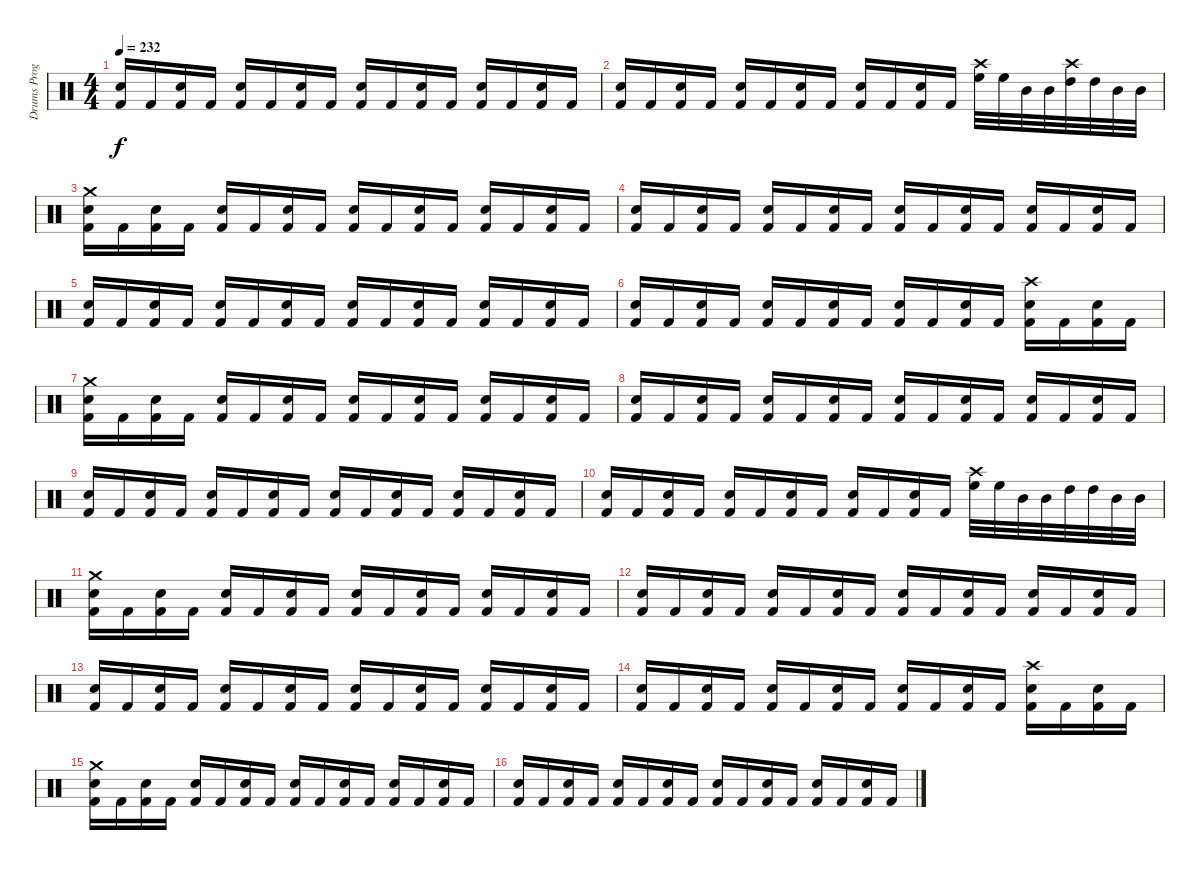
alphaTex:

\track ("Drums Programming" "Drums Prog") {instrument percussion}
\staff {score}
\articulation defaults
\ts (4 4)
\tempo 232
\clef neutral
\ks c
("Electric Snare (hit)" "Kick (hit) 2").16{dy f} "Kick (hit) 2".16 ("Electric Snare (hit)" "Kick (hit) 2").16 "Kick (hit) 2".16 ("Electric Snare (hit)" "Kick (hit) 2").16 "Kick (hit) 2".16 ("Electric Snare (hit)" "Kick (hit) 2").16 "Kick (hit) 2".16 ("Electric Snare (hit)" "Kick (hit) 2").16 "Kick (hit) 2".16 ("Electric Snare (hit)" "Kick (hit) 2").16 "Kick (hit) 2".16 ("Electric Snare (hit)" "Kick (hit) 2").16 "Kick (hit) 2".16 ("Electric Snare (hit)" "Kick (hit) 2").16 "Kick (hit) 2".16 |
("Electric Snare (hit)" "Kick (hit) 2").16 "Kick (hit) 2".16 ("Electric Snare (hit)" "Kick (hit) 2").16 "Kick (hit) 2".16 ("Electric Snare (hit)" "Kick (hit) 2").16 "Kick (hit) 2".16 ("Electric Snare (hit)" "Kick (hit) 2").16 "Kick (hit) 2".16 ("Electric Snare (hit)" "Kick (hit) 2").16 "Kick (hit) 2".16 ("Electric Snare (hit)" "Kick (hit) 2").16 "Kick (hit) 2".16 ("Crash high (hit)" "High Floor Tom (hit)").32 "High Floor Tom (hit)".32 "Mid Tom (hit)".32 "Mid Tom (hit)".32 ("Crash high (hit)" "High Tom (hit)").32 "High Tom (hit)".32 "Mid Tom (hit)".32 "Mid Tom (hit)".32 |
("Crash medium (hit)" "Electric Snare (hit)" "Kick (hit) 2").16 "Kick (hit) 2".16 ("Electric Snare (hit)" "Kick (hit) 2").16 "Kick (hit) 2".16 ("Electric Snare (hit)" "Kick (hit) 2").16 "Kick (hit) 2".16 ("Electric Snare (hit)" "Kick (hit) 2").16 "Kick (hit) 2".16 ("Electric Snare (hit)" "Kick (hit) 2").16 "Kick (hit) 2".16 ("Electric Snare (hit)" "Kick (hit) 2").16 "Kick (hit) 2".16 ("Electric Snare (hit)" "Kick (hit) 2").16 "Kick (hit) 2".16 ("Electric Snare (hit)" "Kick (hit) 2").16 "Kick (hit) 2".16 |
("Electric Snare (hit)" "Kick (hit) 2").16 "Kick (hit) 2".16 ("Electric Snare (hit)" "Kick (hit) 2").16 "Kick (hit) 2".16 ("Electric Snare (hit)" "Kick (hit) 2").16 "Kick (hit) 2".16 ("Electric Snare (hit)" "Kick (hit) 2").16 "Kick (hit) 2".16 ("Electric Snare (hit)" "Kick (hit) 2").16 "Kick (hit) 2".16 ("Electric Snare (hit)" "Kick (hit) 2").16 "Kick (hit) 2".16 ("Electric Snare (hit)" "Kick (hit) 2").16 "Kick (hit) 2".16 ("Electric Snare (hit)" "Kick (hit) 2").16 "Kick (hit) 2".16 |
("Electric Snare (hit)" "Kick (hit) 2").16 "Kick (hit) 2".16 ("Electric Snare (hit)" "Kick (hit) 2").16 "Kick (hit) 2".16 ("Electric Snare (hit)" "Kick (hit) 2").16 "Kick (hit) 2".16 ("Electric Snare (hit)" "Kick (hit) 2").16 "Kick (hit) 2".16 ("Electric Snare (hit)" "Kick (hit) 2").16 "Kick (hit) 2".16 ("Electric Snare (hit)" "Kick (hit) 2").16 "Kick (hit) 2".16 ("Electric Snare (hit)" "Kick (hit) 2").16 "Kick (hit) 2".16 ("Electric Snare (hit)" "Kick (hit) 2").16 "Kick (hit) 2".16 |
("Electric Snare (hit)" "Kick (hit) 2").16 "Kick (hit) 2".16 ("Electric Snare (hit)" "Kick (hit) 2").16 "Kick (hit) 2".16 ("Electric Snare (hit)" "Kick (hit) 2").16 "Kick (hit) 2".16 ("Electric Snare (hit)" "Kick (hit) 2").16 "Kick (hit) 2".16 ("Electric Snare (hit)" "Kick (hit) 2").16 "Kick (hit) 2".16 ("Electric Snare (hit)" "Kick (hit) 2").16 "Kick (hit) 2".16 ("Crash high (hit)" "Electric Snare (hit)" "Kick (hit) 2").16 "Kick (hit) 2".16 ("Electric Snare (hit)" "Kick (hit) 2").16 "Kick (hit) 2".16 |
("Crash medium (hit)" "Electric Snare (hit)" "Kick (hit) 2").16 "Kick (hit) 2".16 ("Electric Snare (hit)" "Kick (hit) 2").16 "Kick (hit) 2".16 ("Electric Snare (hit)" "Kick (hit) 2").16 "Kick (hit) 2".16 ("Electric Snare (hit)" "Kick (hit) 2").16 "Kick (hit) 2".16 ("Electric Snare (hit)" "Kick (hit) 2").16 "Kick (hit) 2".16 ("Electric Snare (hit)" "Kick (hit) 2").16 "Kick (hit) 2".16 ("Electric Snare (hit)" "Kick (hit) 2").16 "Kick (hit) 2".16 ("Electric Snare (hit)" "Kick (hit) 2").16 "Kick (hit) 2".16 |
("Electric Snare (hit)" "Kick (hit) 2").16 "Kick (hit) 2".16 ("Electric Snare (hit)" "Kick (hit) 2").16 "Kick (hit) 2".16 ("Electric Snare (hit)" "Kick (hit) 2").16 "Kick (hit) 2".16 ("Electric Snare (hit)" "Kick (hit) 2").16 "Kick (hit) 2".16 ("Electric Snare (hit)" "Kick (hit) 2").16 "Kick (hit) 2".16 ("Electric Snare (hit)" "Kick (hit) 2").16 "Kick (hit) 2".16 ("Electric Snare (hit)" "Kick (hit) 2").16 "Kick (hit) 2".16 ("Electric Snare (hit)" "Kick (hit) 2").16 "Kick (hit) 2".16 |
("Electric Snare (hit)" "Kick (hit) 2").16 "Kick (hit) 2".16 ("Electric Snare (hit)" "Kick (hit) 2").16 "Kick (hit) 2".16 ("Electric Snare (hit)" "Kick (hit) 2").16 "Kick (hit) 2".16 ("Electric Snare (hit)" "Kick (hit) 2").16 "Kick (hit) 2".16 ("Electric Snare (hit)" "Kick (hit) 2").16 "Kick (hit) 2".16 ("Electric Snare (hit)" "Kick (hit) 2").16 "Kick (hit) 2".16 ("Electric Snare (hit)" "Kick (hit) 2").16 "Kick (hit) 2".16 ("Electric Snare (hit)" "Kick (hit) 2").16 "Kick (hit) 2".16 |
("Electric Snare (hit)" "Kick (hit) 2").16 "Kick (hit) 2".16 ("Electric Snare (hit)" "Kick (hit) 2").16 "Kick (hit) 2".16 ("Electric Snare (hit)" "Kick (hit) 2").16 "Kick (hit) 2".16 ("Electric Snare (hit)" "Kick (hit) 2").16 "Kick (hit) 2".16 ("Electric Snare (hit)" "Kick (hit) 2").16 "Kick (hit) 2".16 ("Electric Snare (hit)" "Kick (hit) 2").16 "Kick (hit) 2".16 ("Crash high (hit)" "High Floor Tom (hit)").32 "High Floor Tom (hit)".32 "Mid Tom (hit)".32 "Mid Tom (hit)".32 "High Tom (hit)".32 "High Tom (hit)".32 "Mid Tom (hit)".32 "Mid Tom (hit)".32 |
("Crash medium (hit)" "Electric Snare (hit)" "Kick (hit) 2").16 "Kick (hit) 2".16 ("Electric Snare (hit)" "Kick (hit) 2").16 "Kick (hit) 2".16 ("Electric Snare (hit)" "Kick (hit) 2").16 "Kick (hit) 2".16 ("Electric Snare (hit)" "Kick (hit) 2").16 "Kick (hit) 2".16 ("Electric Snare (hit)" "Kick (hit) 2").16 "Kick (hit) 2".16 ("Electric Snare (hit)" "Kick (hit) 2").16 "Kick (hit) 2".16 ("Electric Snare (hit)" "Kick (hit) 2").16 "Kick (hit) 2".16 ("Electric Snare (hit)" "Kick (hit) 2").16 "Kick (hit) 2".16 |
("Electric Snare (hit)" "Kick (hit) 2").16 "Kick (hit) 2".16 ("Electric Snare (hit)" "Kick (hit) 2").16 "Kick (hit) 2".16 ("Electric Snare (hit)" "Kick (hit) 2").16 "Kick (hit) 2".16 ("Electric Snare (hit)" "Kick (hit) 2").16 "Kick (hit) 2".16 ("Electric Snare (hit)" "Kick (hit) 2").16 "Kick (hit) 2".16 ("Electric Snare (hit)" "Kick (hit) 2").16 "Kick (hit) 2".16 ("Electric Snare (hit)" "Kick (hit) 2").16 "Kick (hit) 2".16 ("Electric Snare (hit)" "Kick (hit) 2").16 "Kick (hit) 2".16 |
("Electric Snare (hit)" "Kick (hit) 2").16 "Kick (hit) 2".16 ("Electric Snare (hit)" "Kick (hit) 2").16 "Kick (hit) 2".16 ("Electric Snare (hit)" "Kick (hit) 2").16 "Kick (hit) 2".16 ("Electric Snare (hit)" "Kick (hit) 2").16 "Kick (hit) 2".16 ("Electric Snare (hit)" "Kick (hit) 2").16 "Kick (hit) 2".16 ("Electric Snare (hit)" "Kick (hit) 2").16 "Kick (hit) 2".16 ("Electric Snare (hit)" "Kick (hit) 2").16 "Kick (hit) 2".16 ("Electric Snare (hit)" "Kick (hit) 2").16 "Kick (hit) 2".16 |
("Electric Snare (hit)" "Kick (hit) 2").16 "Kick (hit) 2".16 ("Electric Snare (hit)" "Kick (hit) 2").16 "Kick (hit) 2".16 ("Electric Snare (hit)" "Kick (hit) 2").16 "Kick (hit) 2".16 ("Electric Snare (hit)" "Kick (hit) 2").16 "Kick (hit) 2".16 ("Electric Snare (hit)" "Kick (hit) 2").16 "Kick (hit) 2".16 ("Electric Snare (hit)" "Kick (hit) 2").16 "Kick (hit) 2".16 ("Crash high (hit)" "Electric Snare (hit)" "Kick (hit) 2").16 "Kick (hit) 2".16 ("Electric Snare (hit)" "Kick (hit) 2").16 "Kick (hit) 2".16 |
("Crash medium (hit)" "Electric Snare (hit)" "Kick (hit) 2").16 "Kick (hit) 2".16 ("Electric Snare (hit)" "Kick (hit) 2").16 "Kick (hit) 2".16 ("Electric Snare (hit)" "Kick (hit) 2").16 "Kick (hit) 2".16 ("Electric Snare (hit)" "Kick (hit) 2").16 "Kick (hit) 2".16 ("Electric Snare (hit)" "Kick (hit) 2").16 "Kick (hit) 2".16 ("Electric Snare (hit)" "Kick (hit) 2").16 "Kick (hit) 2".16 ("Electric Snare (hit)" "Kick (hit) 2").16 "Kick (hit) 2".16 ("Electric Snare (hit)" "Kick (hit) 2").16 "Kick (hit) 2".16 |
("Electric Snare (hit)" "Kick (hit) 2").16 "Kick (hit) 2".16 ("Electric Snare (hit)" "Kick (hit) 2").16 "Kick (hit) 2".16 ("Electric Snare (hit)" "Kick (hit) 2").16 "Kick (hit) 2".16 ("Electric Snare (hit)" "Kick (hit) 2").16 "Kick (hit) 2".16 ("Electric Snare (hit)" "Kick (hit) 2").16 "Kick (hit) 2".16 ("Electric Snare (hit)" "Kick (hit) 2").16 "Kick (hit) 2".16 ("Electric Snare (hit)" "Kick (hit) 2").16 "Kick (hit) 2".16 ("Electric Snare (hit)" "Kick (hit) 2").16 "Kick (hit) 2".16
